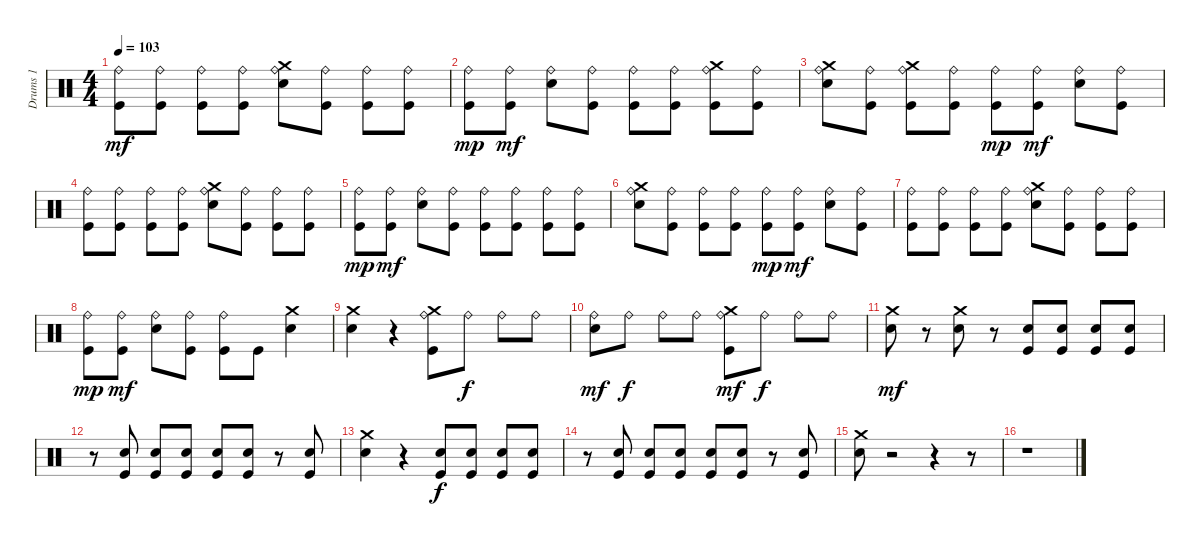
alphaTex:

\track ("Drums 1" "Drums 1") {instrument percussion}
\staff {score}
\articulation defaults
\ts (4 4)
\tempo 103
\clef neutral
\ks c
("Ride (bell)" "Kick (hit)").8{dy mf} ("Ride (bell)" "Kick (hit)").8 ("Ride (bell)" "Kick (hit)").8 ("Ride (bell)" "Kick (hit)").8 ("Crash medium (hit)" "Ride (bell)" "Electric Snare (hit)").8 ("Ride (bell)" "Kick (hit)").8 ("Ride (bell)" "Kick (hit)").8 ("Ride (bell)" "Kick (hit)").8 |
("Ride (bell)" "Kick (hit)").8{dy mp} ("Ride (bell)" "Kick (hit)").8{dy mf} ("Ride (bell)" "Electric Snare (hit)").8 ("Ride (bell)" "Kick (hit)").8 ("Ride (bell)" "Kick (hit)").8 ("Ride (bell)" "Kick (hit)").8 ("Kick (hit)" "Crash medium (hit)" "Ride (bell)").8 ("Ride (bell)" "Kick (hit)").8 |
("Crash medium (hit)" "Ride (bell)" "Electric Snare (hit)").8 ("Ride (bell)" "Kick (hit)").8 ("Crash medium (hit)" "Ride (bell)" "Kick (hit)").8 ("Ride (bell)" "Kick (hit)").8 ("Ride (bell)" "Kick (hit)").8{dy mp} ("Ride (bell)" "Kick (hit)").8{dy mf} ("Ride (bell)" "Electric Snare (hit)").8 ("Ride (bell)" "Kick (hit)").8 |
("Ride (bell)" "Kick (hit)").8 ("Ride (bell)" "Kick (hit)").8 ("Ride (bell)" "Kick (hit)").8 ("Ride (bell)" "Kick (hit)").8 ("Crash medium (hit)" "Ride (bell)" "Electric Snare (hit)").8 ("Ride (bell)" "Kick (hit)").8 ("Ride (bell)" "Kick (hit)").8 ("Ride (bell)" "Kick (hit)").8 |
("Ride (bell)" "Kick (hit)").8{dy mp} ("Ride (bell)" "Kick (hit)").8{dy mf} ("Ride (bell)" "Electric Snare (hit)").8 ("Ride (bell)" "Kick (hit)").8 ("Ride (bell)" "Kick (hit)").8 ("Ride (bell)" "Kick (hit)").8 ("Ride (bell)" "Kick (hit)").8 ("Ride (bell)" "Kick (hit)").8 |
("Crash medium (hit)" "Ride (bell)" "Electric Snare (hit)").8 ("Ride (bell)" "Kick (hit)").8 ("Ride (bell)" "Kick (hit)").8 ("Ride (bell)" "Kick (hit)").8 ("Ride (bell)" "Kick (hit)").8{dy mp} ("Ride (bell)" "Kick (hit)").8{dy mf} ("Ride (bell)" "Electric Snare (hit)").8 ("Ride (bell)" "Kick (hit)").8 |
("Ride (bell)" "Kick (hit)").8 ("Ride (bell)" "Kick (hit)").8 ("Ride (bell)" "Kick (hit)").8 ("Ride (bell)" "Kick (hit)").8 ("Crash medium (hit)" "Ride (bell)" "Electric Snare (hit)").8 ("Ride (bell)" "Kick (hit)").8 ("Ride (bell)" "Kick (hit)").8 ("Ride (bell)" "Kick (hit)").8 |
("Ride (bell)" "Kick (hit)").8{dy mp} ("Ride (bell)" "Kick (hit)").8{dy mf} ("Ride (bell)" "Electric Snare (hit)").8 ("Ride (bell)" "Kick (hit)").8 ("Ride (bell)" "Kick (hit)").8 "Kick (hit)".8 ("Crash medium (hit)" "Electric Snare (hit)").4 |
("Electric Snare (hit)" "Crash medium (hit)").4 r.4 ("Kick (hit)" "Crash medium (hit)" "Ride (bell)").8 "Ride (bell)".8{dy f} "Ride (bell)".8 "Ride (bell)".8 |
("Electric Snare (hit)" "Ride (bell)").8{dy mf} "Ride (bell)".8{dy f} "Ride (bell)".8 "Ride (bell)".8 ("Kick (hit)" "Crash medium (hit)" "Ride (bell)").8{dy mf} "Ride (bell)".8{dy f} "Ride (bell)".8 "Ride (bell)".8 |
("Electric Snare (hit)" "Crash medium (hit)").8{dy mf} r.8 ("Electric Snare (hit)" "Crash medium (hit)").8 r.8 ("Kick (hit)" "Electric Snare (hit)").8 ("Kick (hit)" "Electric Snare (hit)").8 ("Kick (hit)" "Electric Snare (hit)").8 ("Kick (hit)" "Electric Snare (hit)").8 |
r.8 ("Kick (hit)" "Electric Snare (hit)").8 ("Kick (hit)" "Electric Snare (hit)").8 ("Kick (hit)" "Electric Snare (hit)").8 ("Kick (hit)" "Electric Snare (hit)").8 ("Kick (hit)" "Electric Snare (hit)").8 r.8 ("Electric Snare (hit)" "Kick (hit)").8 |
("Electric Snare (hit)" "Crash medium (hit)").4 r.4 ("Kick (hit)" "Electric Snare (hit)").8{dy f} ("Electric Snare (hit)" "Kick (hit)").8 ("Electric Snare (hit)" "Kick (hit)").8 ("Kick (hit)" "Electric Snare (hit)").8 |
r.8 ("Kick (hit)" "Electric Snare (hit)").8 ("Kick (hit)" "Electric Snare (hit)").8 ("Kick (hit)" "Electric Snare (hit)").8 ("Kick (hit)" "Electric Snare (hit)").8 ("Electric Snare (hit)" "Kick (hit)").8 r.8 ("Electric Snare (hit)" "Kick (hit)").8 |
("Crash medium (hit)" "Electric Snare (hit)").8 r.2 r.4 r.8 |
r.1
